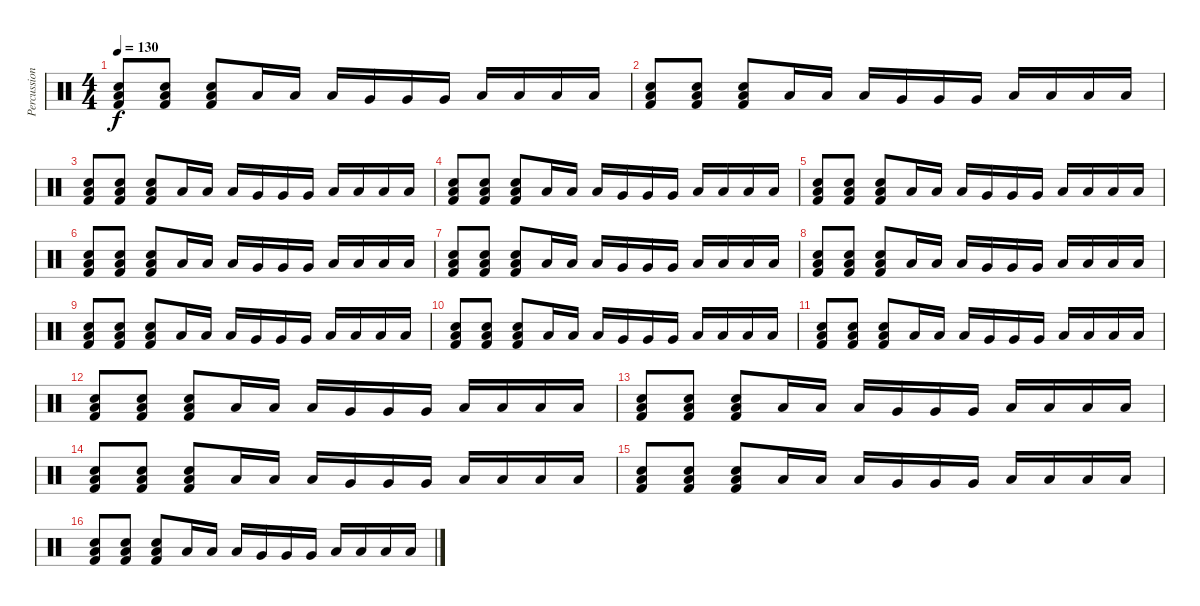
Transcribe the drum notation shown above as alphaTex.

\track ("Percussion" "Percussion") {instrument percussion}
\staff {score}
\articulation defaults
\ts (4 4)
\tempo 130
\clef neutral
\ks c
("Hand Clap (hit)" "Low Tom (hit)" "Kick (hit) 2").8{dy f} ("Hand Clap (hit)" "Low Tom (hit)" "Kick (hit) 2").8 ("Hand Clap (hit)" "Low Tom (hit)" "Kick (hit) 2").8 "Low Tom (hit)".16 "Low Tom (hit)".16 "Low Tom (hit)".16 "Very Low Tom (hit)".16 "Very Low Tom (hit)".16 "Very Low Tom (hit)".16 "Low Floor Tom (hit)".16 "Low Floor Tom (hit)".16 "Low Floor Tom (hit)".16 "Low Floor Tom (hit)".16 |
("Hand Clap (hit)" "Low Tom (hit)" "Kick (hit) 2").8 ("Hand Clap (hit)" "Low Tom (hit)" "Kick (hit) 2").8 ("Hand Clap (hit)" "Low Tom (hit)" "Kick (hit) 2").8 "Low Tom (hit)".16 "Low Tom (hit)".16 "Low Tom (hit)".16 "Very Low Tom (hit)".16 "Very Low Tom (hit)".16 "Very Low Tom (hit)".16 "Low Floor Tom (hit)".16 "Low Floor Tom (hit)".16 "Low Floor Tom (hit)".16 "Low Floor Tom (hit)".16 |
("Hand Clap (hit)" "Low Tom (hit)" "Kick (hit) 2").8 ("Hand Clap (hit)" "Low Tom (hit)" "Kick (hit) 2").8 ("Hand Clap (hit)" "Low Tom (hit)" "Kick (hit) 2").8 "Low Tom (hit)".16 "Low Tom (hit)".16 "Low Tom (hit)".16 "Very Low Tom (hit)".16 "Very Low Tom (hit)".16 "Very Low Tom (hit)".16 "Low Floor Tom (hit)".16 "Low Floor Tom (hit)".16 "Low Floor Tom (hit)".16 "Low Floor Tom (hit)".16 |
("Hand Clap (hit)" "Low Tom (hit)" "Kick (hit) 2").8 ("Hand Clap (hit)" "Low Tom (hit)" "Kick (hit) 2").8 ("Hand Clap (hit)" "Low Tom (hit)" "Kick (hit) 2").8 "Low Tom (hit)".16 "Low Tom (hit)".16 "Low Tom (hit)".16 "Very Low Tom (hit)".16 "Very Low Tom (hit)".16 "Very Low Tom (hit)".16 "Low Floor Tom (hit)".16 "Low Floor Tom (hit)".16 "Low Floor Tom (hit)".16 "Low Floor Tom (hit)".16 |
("Hand Clap (hit)" "Low Tom (hit)" "Kick (hit) 2").8 ("Hand Clap (hit)" "Low Tom (hit)" "Kick (hit) 2").8 ("Hand Clap (hit)" "Low Tom (hit)" "Kick (hit) 2").8 "Low Tom (hit)".16 "Low Tom (hit)".16 "Low Tom (hit)".16 "Very Low Tom (hit)".16 "Very Low Tom (hit)".16 "Very Low Tom (hit)".16 "Low Floor Tom (hit)".16 "Low Floor Tom (hit)".16 "Low Floor Tom (hit)".16 "Low Floor Tom (hit)".16 |
("Hand Clap (hit)" "Low Tom (hit)" "Kick (hit) 2").8 ("Hand Clap (hit)" "Low Tom (hit)" "Kick (hit) 2").8 ("Hand Clap (hit)" "Low Tom (hit)" "Kick (hit) 2").8 "Low Tom (hit)".16 "Low Tom (hit)".16 "Low Tom (hit)".16 "Very Low Tom (hit)".16 "Very Low Tom (hit)".16 "Very Low Tom (hit)".16 "Low Floor Tom (hit)".16 "Low Floor Tom (hit)".16 "Low Floor Tom (hit)".16 "Low Floor Tom (hit)".16 |
("Hand Clap (hit)" "Low Tom (hit)" "Kick (hit) 2").8 ("Hand Clap (hit)" "Low Tom (hit)" "Kick (hit) 2").8 ("Hand Clap (hit)" "Low Tom (hit)" "Kick (hit) 2").8 "Low Tom (hit)".16 "Low Tom (hit)".16 "Low Tom (hit)".16 "Very Low Tom (hit)".16 "Very Low Tom (hit)".16 "Very Low Tom (hit)".16 "Low Floor Tom (hit)".16 "Low Floor Tom (hit)".16 "Low Floor Tom (hit)".16 "Low Floor Tom (hit)".16 |
("Hand Clap (hit)" "Low Tom (hit)" "Kick (hit) 2").8 ("Hand Clap (hit)" "Low Tom (hit)" "Kick (hit) 2").8 ("Hand Clap (hit)" "Low Tom (hit)" "Kick (hit) 2").8 "Low Tom (hit)".16 "Low Tom (hit)".16 "Low Tom (hit)".16 "Very Low Tom (hit)".16 "Very Low Tom (hit)".16 "Very Low Tom (hit)".16 "Low Floor Tom (hit)".16 "Low Floor Tom (hit)".16 "Low Floor Tom (hit)".16 "Low Floor Tom (hit)".16 |
("Hand Clap (hit)" "Low Tom (hit)" "Kick (hit) 2").8 ("Hand Clap (hit)" "Low Tom (hit)" "Kick (hit) 2").8 ("Hand Clap (hit)" "Low Tom (hit)" "Kick (hit) 2").8 "Low Tom (hit)".16 "Low Tom (hit)".16 "Low Tom (hit)".16 "Very Low Tom (hit)".16 "Very Low Tom (hit)".16 "Very Low Tom (hit)".16 "Low Floor Tom (hit)".16 "Low Floor Tom (hit)".16 "Low Floor Tom (hit)".16 "Low Floor Tom (hit)".16 |
("Hand Clap (hit)" "Low Tom (hit)" "Kick (hit) 2").8 ("Hand Clap (hit)" "Low Tom (hit)" "Kick (hit) 2").8 ("Hand Clap (hit)" "Low Tom (hit)" "Kick (hit) 2").8 "Low Tom (hit)".16 "Low Tom (hit)".16 "Low Tom (hit)".16 "Very Low Tom (hit)".16 "Very Low Tom (hit)".16 "Very Low Tom (hit)".16 "Low Floor Tom (hit)".16 "Low Floor Tom (hit)".16 "Low Floor Tom (hit)".16 "Low Floor Tom (hit)".16 |
("Hand Clap (hit)" "Low Tom (hit)" "Kick (hit) 2").8 ("Hand Clap (hit)" "Low Tom (hit)" "Kick (hit) 2").8 ("Hand Clap (hit)" "Low Tom (hit)" "Kick (hit) 2").8 "Low Tom (hit)".16 "Low Tom (hit)".16 "Low Tom (hit)".16 "Very Low Tom (hit)".16 "Very Low Tom (hit)".16 "Very Low Tom (hit)".16 "Low Floor Tom (hit)".16 "Low Floor Tom (hit)".16 "Low Floor Tom (hit)".16 "Low Floor Tom (hit)".16 |
("Hand Clap (hit)" "Low Tom (hit)" "Kick (hit) 2").8 ("Hand Clap (hit)" "Low Tom (hit)" "Kick (hit) 2").8 ("Hand Clap (hit)" "Low Tom (hit)" "Kick (hit) 2").8 "Low Tom (hit)".16 "Low Tom (hit)".16 "Low Tom (hit)".16 "Very Low Tom (hit)".16 "Very Low Tom (hit)".16 "Very Low Tom (hit)".16 "Low Floor Tom (hit)".16 "Low Floor Tom (hit)".16 "Low Floor Tom (hit)".16 "Low Floor Tom (hit)".16 |
("Hand Clap (hit)" "Low Tom (hit)" "Kick (hit) 2").8 ("Hand Clap (hit)" "Low Tom (hit)" "Kick (hit) 2").8 ("Hand Clap (hit)" "Low Tom (hit)" "Kick (hit) 2").8 "Low Tom (hit)".16 "Low Tom (hit)".16 "Low Tom (hit)".16 "Very Low Tom (hit)".16 "Very Low Tom (hit)".16 "Very Low Tom (hit)".16 "Low Floor Tom (hit)".16 "Low Floor Tom (hit)".16 "Low Floor Tom (hit)".16 "Low Floor Tom (hit)".16 |
("Hand Clap (hit)" "Low Tom (hit)" "Kick (hit) 2").8 ("Hand Clap (hit)" "Low Tom (hit)" "Kick (hit) 2").8 ("Hand Clap (hit)" "Low Tom (hit)" "Kick (hit) 2").8 "Low Tom (hit)".16 "Low Tom (hit)".16 "Low Tom (hit)".16 "Very Low Tom (hit)".16 "Very Low Tom (hit)".16 "Very Low Tom (hit)".16 "Low Floor Tom (hit)".16 "Low Floor Tom (hit)".16 "Low Floor Tom (hit)".16 "Low Floor Tom (hit)".16 |
("Hand Clap (hit)" "Low Tom (hit)" "Kick (hit) 2").8 ("Hand Clap (hit)" "Low Tom (hit)" "Kick (hit) 2").8 ("Hand Clap (hit)" "Low Tom (hit)" "Kick (hit) 2").8 "Low Tom (hit)".16 "Low Tom (hit)".16 "Low Tom (hit)".16 "Very Low Tom (hit)".16 "Very Low Tom (hit)".16 "Very Low Tom (hit)".16 "Low Floor Tom (hit)".16 "Low Floor Tom (hit)".16 "Low Floor Tom (hit)".16 "Low Floor Tom (hit)".16 |
("Hand Clap (hit)" "Low Tom (hit)" "Kick (hit) 2").8 ("Hand Clap (hit)" "Low Tom (hit)" "Kick (hit) 2").8 ("Hand Clap (hit)" "Low Tom (hit)" "Kick (hit) 2").8 "Low Tom (hit)".16 "Low Tom (hit)".16 "Low Tom (hit)".16 "Very Low Tom (hit)".16 "Very Low Tom (hit)".16 "Very Low Tom (hit)".16 "Low Floor Tom (hit)".16 "Low Floor Tom (hit)".16 "Low Floor Tom (hit)".16 "Low Floor Tom (hit)".16
